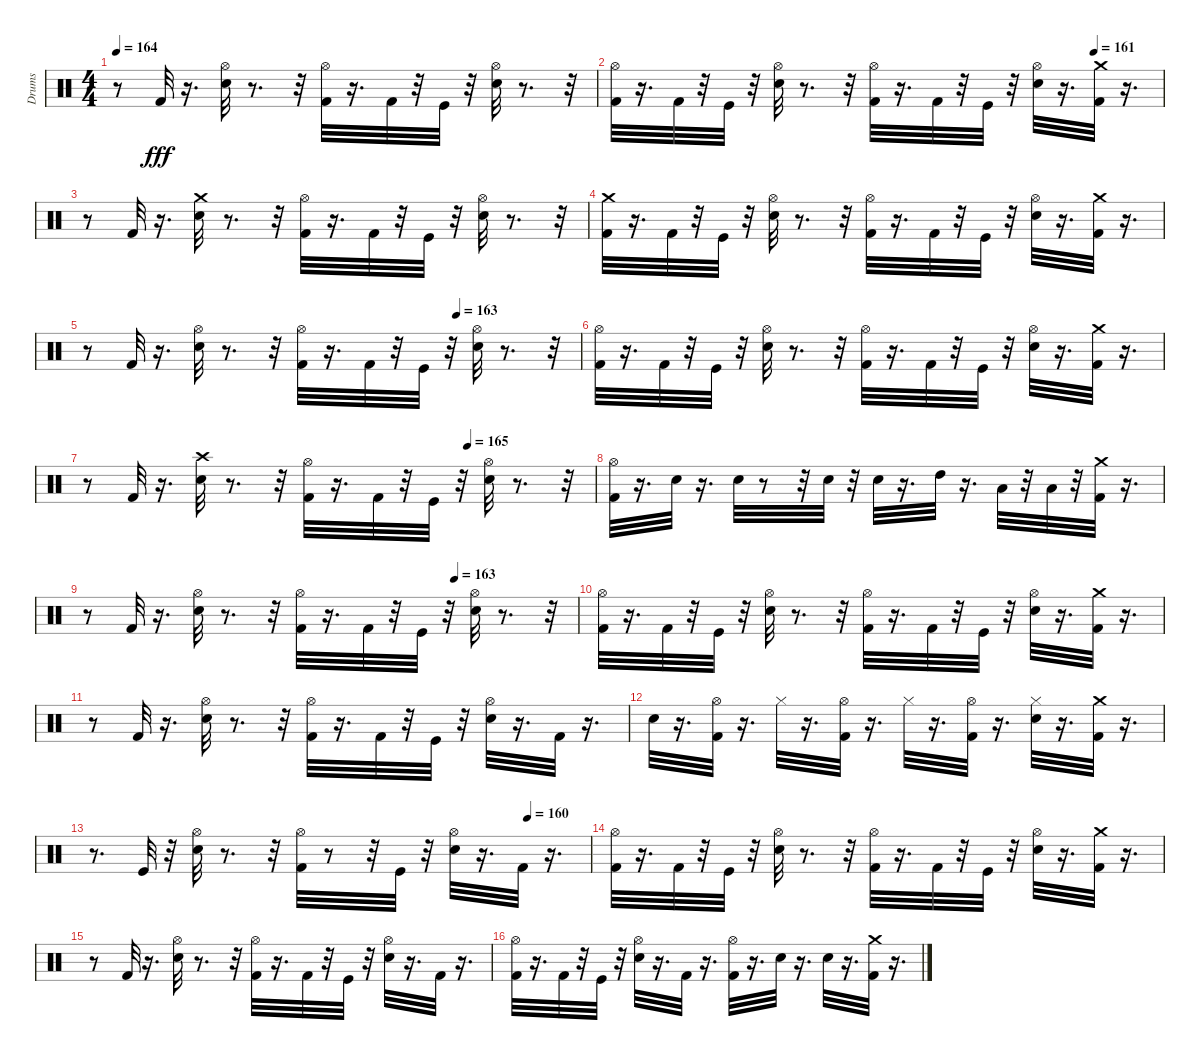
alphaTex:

\track ("Drums" "Drums") {instrument percussion}
\staff {score}
\articulation defaults
\ts (4 4)
\tempo 164
\clef neutral
\ks c
r.8{dy fff} "Kick (hit) 2".32 r.16{d} ("Snare (hit) 2" "Hi-Hat (open)").32 r.8{d} r.32 ("Kick (hit) 2" "Hi-Hat (open)").32 r.16{d} "Kick (hit) 2".32 r.32 "Kick (hit)".32 r.32 ("Snare (hit) 2" "Hi-Hat (open)").32 r.8{d} r.32 |
\tempo (161 0.875)
("Kick (hit) 2" "Hi-Hat (open)").32 r.16{d} "Kick (hit) 2".32 r.32 "Kick (hit)".32 r.32 ("Snare (hit) 2" "Hi-Hat (open)").32 r.8{d} r.32 ("Kick (hit) 2" "Hi-Hat (open)").32 r.16{d} "Kick (hit) 2".32 r.32 "Kick (hit)".32 r.32 ("Snare (hit) 2" "Hi-Hat (open)").32 r.16{d} ("Kick (hit) 2" "Crash medium (hit)").32 r.16{d} |
r.8 "Kick (hit) 2".32 r.16{d} ("Snare (hit) 2" "Crash medium (hit)").32 r.8{d} r.32 ("Kick (hit) 2" "Hi-Hat (open)").32 r.16{d} "Kick (hit) 2".32 r.32 "Kick (hit)".32 r.32 ("Snare (hit) 2" "Hi-Hat (open)").32 r.8{d} r.32 |
("Kick (hit) 2" "Crash medium (hit)").32 r.16{d} "Kick (hit) 2".32 r.32 "Kick (hit)".32 r.32 ("Snare (hit) 2" "Hi-Hat (open)").32 r.8{d} r.32 ("Kick (hit) 2" "Hi-Hat (open)").32 r.16{d} "Kick (hit) 2".32 r.32 "Kick (hit)".32 r.32 ("Snare (hit) 2" "Hi-Hat (open)").32 r.16{d} ("Kick (hit) 2" "Crash medium (hit)").32 r.16{d} |
\tempo (163 0.75)
r.8 "Kick (hit) 2".32 r.16{d} ("Snare (hit) 2" "Hi-Hat (open)").32 r.8{d} r.32 ("Kick (hit) 2" "Hi-Hat (open)").32 r.16{d} "Kick (hit) 2".32 r.32 "Kick (hit)".32 r.32 ("Snare (hit) 2" "Hi-Hat (open)").32 r.8{d} r.32 |
("Kick (hit) 2" "Hi-Hat (open)").32 r.16{d} "Kick (hit) 2".32 r.32 "Kick (hit)".32 r.32 ("Snare (hit) 2" "Hi-Hat (open)").32 r.8{d} r.32 ("Kick (hit) 2" "Hi-Hat (open)").32 r.16{d} "Kick (hit) 2".32 r.32 "Kick (hit)".32 r.32 ("Snare (hit) 2" "Hi-Hat (open)").32 r.16{d} ("Kick (hit) 2" "Crash medium (hit)").32 r.16{d} |
\tempo (165 0.75)
r.8 "Kick (hit) 2".32 r.16{d} ("Snare (hit) 2" "Crash high (hit)").32 r.8{d} r.32 ("Kick (hit) 2" "Hi-Hat (open)").32 r.16{d} "Kick (hit) 2".32 r.32 "Kick (hit)".32 r.32 ("Snare (hit) 2" "Hi-Hat (open)").32 r.8{d} r.32 |
("Kick (hit) 2" "Hi-Hat (open)").32 r.16{d} "Snare (hit) 2".32 r.16{d} "Snare (hit) 2".32 r.8 r.32 "Snare (hit) 2".32 r.32 "Snare (hit) 2".32 r.16{d} "High Tom (hit)".32 r.16{d} "Low Tom (hit)".32 r.32 "Low Tom (hit)".32 r.32 ("Crash medium (hit)" "Kick (hit) 2").32 r.16{d} |
\tempo (163 0.75)
r.8 "Kick (hit) 2".32 r.16{d} ("Snare (hit) 2" "Hi-Hat (open)").32 r.8{d} r.32 ("Kick (hit) 2" "Hi-Hat (open)").32 r.16{d} "Kick (hit) 2".32 r.32 "Kick (hit)".32 r.32 ("Snare (hit) 2" "Hi-Hat (open)").32 r.8{d} r.32 |
("Kick (hit) 2" "Hi-Hat (open)").32 r.16{d} "Kick (hit) 2".32 r.32 "Kick (hit)".32 r.32 ("Snare (hit) 2" "Hi-Hat (open)").32 r.8{d} r.32 ("Kick (hit) 2" "Hi-Hat (open)").32 r.16{d} "Kick (hit) 2".32 r.32 "Kick (hit)".32 r.32 ("Snare (hit) 2" "Hi-Hat (open)").32 r.16{d} ("Kick (hit) 2" "Crash medium (hit)").32 r.16{d} |
r.8 "Kick (hit) 2".32 r.16{d} ("Snare (hit) 2" "Hi-Hat (open)").32 r.8{d} r.32 ("Kick (hit) 2" "Hi-Hat (open)").32 r.16{d} "Kick (hit) 2".32 r.32 "Kick (hit)".32 r.32 ("Snare (hit) 2" "Hi-Hat (open)").32 r.16{d} "Kick (hit) 2".32 r.16{d} |
"Snare (hit) 2".32 r.16{d} ("Kick (hit) 2" "Hi-Hat (open)").32 r.16{d} "Hi-Hat (closed)".32 r.16{d} ("Kick (hit) 2" "Hi-Hat (open)").32 r.16{d} "Hi-Hat (closed)".32 r.16{d} ("Kick (hit) 2" "Hi-Hat (open)").32 r.16{d} ("Snare (hit) 2" "Hi-Hat (closed)").32 r.16{d} ("Kick (hit) 2" "Crash medium (hit)").32 r.16{d} |
\tempo (160 0.875)
r.8{d} "Kick (hit)".32 r.32 ("Snare (hit) 2" "Hi-Hat (open)").32 r.8{d} r.32 ("Kick (hit) 2" "Hi-Hat (open)").32 r.8 r.32 "Kick (hit)".32 r.32 ("Snare (hit) 2" "Hi-Hat (open)").32 r.16{d} "Kick (hit) 2".32 r.16{d} |
("Kick (hit) 2" "Hi-Hat (open)").32 r.16{d} "Kick (hit) 2".32 r.32 "Kick (hit)".32 r.32 ("Snare (hit) 2" "Hi-Hat (open)").32 r.8{d} r.32 ("Kick (hit) 2" "Hi-Hat (open)").32 r.16{d} "Kick (hit) 2".32 r.32 "Kick (hit)".32 r.32 ("Snare (hit) 2" "Hi-Hat (open)").32 r.16{d} ("Kick (hit) 2" "Crash medium (hit)").32 r.16{d} |
r.8 "Kick (hit) 2".32 r.16{d} ("Snare (hit) 2" "Hi-Hat (open)").32 r.8{d} r.32 ("Kick (hit) 2" "Hi-Hat (open)").32 r.16{d} "Kick (hit) 2".32 r.32 "Kick (hit)".32 r.32 ("Snare (hit) 2" "Hi-Hat (open)").32 r.16{d} "Kick (hit) 2".32 r.16{d} |
("Kick (hit) 2" "Hi-Hat (open)").32 r.16{d} "Kick (hit) 2".32 r.32 "Kick (hit)".32 r.32 ("Snare (hit) 2" "Hi-Hat (open)").32 r.16{d} "Kick (hit) 2".32 r.16{d} ("Kick (hit) 2" "Hi-Hat (open)").32 r.16{d} "Snare (hit) 2".32 r.16{d} "Snare (hit) 2".32 r.16{d} ("Kick (hit) 2" "Crash medium (hit)").32 r.16{d}
